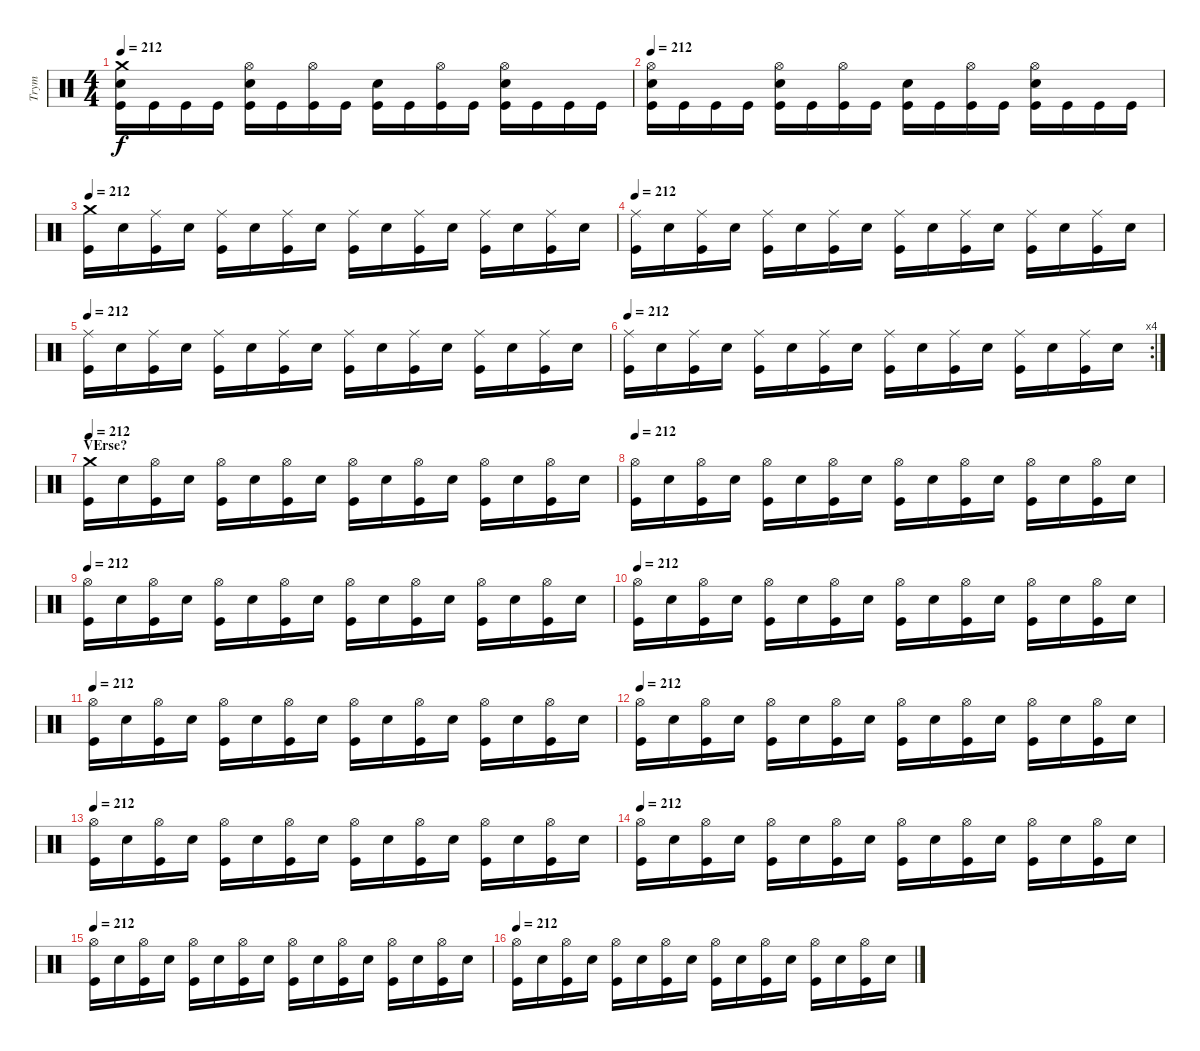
\track ("Trym" "Trym") {instrument percussion}
\staff {score}
\articulation defaults
\ts (4 4)
\tempo 212
\clef neutral
\ks c
("Crash medium (hit)" "Electric Snare (hit)" "Kick (hit)").16{dy f} "Kick (hit)".16 "Kick (hit)".16 "Kick (hit)".16 ("Hi-Hat (open)" "Electric Snare (hit)" "Kick (hit)").16 "Kick (hit)".16 ("Hi-Hat (open)" "Kick (hit)").16 "Kick (hit)".16 ("Electric Snare (hit)" "Kick (hit)").16 "Kick (hit)".16 ("Hi-Hat (open)" "Kick (hit)").16 "Kick (hit)".16 ("Hi-Hat (open)" "Electric Snare (hit)" "Kick (hit)").16 "Kick (hit)".16 "Kick (hit)".16 "Kick (hit)".16 |
\tempo 212
("Hi-Hat (open)" "Electric Snare (hit)" "Kick (hit)").16 "Kick (hit)".16 "Kick (hit)".16 "Kick (hit)".16 ("Hi-Hat (open)" "Electric Snare (hit)" "Kick (hit)").16 "Kick (hit)".16 ("Hi-Hat (open)" "Kick (hit)").16 "Kick (hit)".16 ("Electric Snare (hit)" "Kick (hit)").16 "Kick (hit)".16 ("Hi-Hat (open)" "Kick (hit)").16 "Kick (hit)".16 ("Hi-Hat (open)" "Electric Snare (hit)" "Kick (hit)").16 "Kick (hit)".16 "Kick (hit)".16 "Kick (hit)".16 |
\tempo 212
("Crash medium (hit)" "Kick (hit)").16 "Electric Snare (hit)".16 ("Ride (middle)" "Kick (hit)").16 "Electric Snare (hit)".16 ("Ride (middle)" "Kick (hit)").16 "Electric Snare (hit)".16 ("Ride (middle)" "Kick (hit)").16 "Electric Snare (hit)".16 ("Ride (middle)" "Kick (hit)").16 "Electric Snare (hit)".16 ("Ride (middle)" "Kick (hit)").16 "Electric Snare (hit)".16 ("Ride (middle)" "Kick (hit)").16 "Electric Snare (hit)".16 ("Ride (middle)" "Kick (hit)").16 "Electric Snare (hit)".16 |
\tempo 212
("Ride (middle)" "Kick (hit)").16 "Electric Snare (hit)".16 ("Ride (middle)" "Kick (hit)").16 "Electric Snare (hit)".16 ("Ride (middle)" "Kick (hit)").16 "Electric Snare (hit)".16 ("Ride (middle)" "Kick (hit)").16 "Electric Snare (hit)".16 ("Ride (middle)" "Kick (hit)").16 "Electric Snare (hit)".16 ("Ride (middle)" "Kick (hit)").16 "Electric Snare (hit)".16 ("Ride (middle)" "Kick (hit)").16 "Electric Snare (hit)".16 ("Ride (middle)" "Kick (hit)").16 "Electric Snare (hit)".16 |
\tempo 212
("Ride (middle)" "Kick (hit)").16 "Electric Snare (hit)".16 ("Ride (middle)" "Kick (hit)").16 "Electric Snare (hit)".16 ("Ride (middle)" "Kick (hit)").16 "Electric Snare (hit)".16 ("Ride (middle)" "Kick (hit)").16 "Electric Snare (hit)".16 ("Ride (middle)" "Kick (hit)").16 "Electric Snare (hit)".16 ("Ride (middle)" "Kick (hit)").16 "Electric Snare (hit)".16 ("Ride (middle)" "Kick (hit)").16 "Electric Snare (hit)".16 ("Ride (middle)" "Kick (hit)").16 "Electric Snare (hit)".16 |
\rc 4
\tempo 212
("Ride (middle)" "Kick (hit)").16 "Electric Snare (hit)".16 ("Ride (middle)" "Kick (hit)").16 "Electric Snare (hit)".16 ("Ride (middle)" "Kick (hit)").16 "Electric Snare (hit)".16 ("Ride (middle)" "Kick (hit)").16 "Electric Snare (hit)".16 ("Ride (middle)" "Kick (hit)").16 "Electric Snare (hit)".16 ("Ride (middle)" "Kick (hit)").16 "Electric Snare (hit)".16 ("Ride (middle)" "Kick (hit)").16 "Electric Snare (hit)".16 ("Ride (middle)" "Kick (hit)").16 "Electric Snare (hit)".16 |
\section ("" "VErse?")
\tempo 212
("Crash medium (hit)" "Kick (hit)").16 "Electric Snare (hit)".16 ("Hi-Hat (open)" "Kick (hit)").16 "Electric Snare (hit)".16 ("Hi-Hat (open)" "Kick (hit)").16 "Electric Snare (hit)".16 ("Hi-Hat (open)" "Kick (hit)").16 "Electric Snare (hit)".16 ("Hi-Hat (open)" "Kick (hit)").16 "Electric Snare (hit)".16 ("Hi-Hat (open)" "Kick (hit)").16 "Electric Snare (hit)".16 ("Hi-Hat (open)" "Kick (hit)").16 "Electric Snare (hit)".16 ("Hi-Hat (open)" "Kick (hit)").16 "Electric Snare (hit)".16 |
\tempo 212
("Hi-Hat (open)" "Kick (hit)").16 "Electric Snare (hit)".16 ("Hi-Hat (open)" "Kick (hit)").16 "Electric Snare (hit)".16 ("Hi-Hat (open)" "Kick (hit)").16 "Electric Snare (hit)".16 ("Hi-Hat (open)" "Kick (hit)").16 "Electric Snare (hit)".16 ("Hi-Hat (open)" "Kick (hit)").16 "Electric Snare (hit)".16 ("Hi-Hat (open)" "Kick (hit)").16 "Electric Snare (hit)".16 ("Hi-Hat (open)" "Kick (hit)").16 "Electric Snare (hit)".16 ("Hi-Hat (open)" "Kick (hit)").16 "Electric Snare (hit)".16 |
\tempo 212
("Hi-Hat (open)" "Kick (hit)").16 "Electric Snare (hit)".16 ("Hi-Hat (open)" "Kick (hit)").16 "Electric Snare (hit)".16 ("Hi-Hat (open)" "Kick (hit)").16 "Electric Snare (hit)".16 ("Hi-Hat (open)" "Kick (hit)").16 "Electric Snare (hit)".16 ("Hi-Hat (open)" "Kick (hit)").16 "Electric Snare (hit)".16 ("Hi-Hat (open)" "Kick (hit)").16 "Electric Snare (hit)".16 ("Hi-Hat (open)" "Kick (hit)").16 "Electric Snare (hit)".16 ("Hi-Hat (open)" "Kick (hit)").16 "Electric Snare (hit)".16 |
\tempo 212
("Hi-Hat (open)" "Kick (hit)").16 "Electric Snare (hit)".16 ("Hi-Hat (open)" "Kick (hit)").16 "Electric Snare (hit)".16 ("Hi-Hat (open)" "Kick (hit)").16 "Electric Snare (hit)".16 ("Hi-Hat (open)" "Kick (hit)").16 "Electric Snare (hit)".16 ("Hi-Hat (open)" "Kick (hit)").16 "Electric Snare (hit)".16 ("Hi-Hat (open)" "Kick (hit)").16 "Electric Snare (hit)".16 ("Hi-Hat (open)" "Kick (hit)").16 "Electric Snare (hit)".16 ("Hi-Hat (open)" "Kick (hit)").16 "Electric Snare (hit)".16 |
\tempo 212
("Hi-Hat (open)" "Kick (hit)").16 "Electric Snare (hit)".16 ("Hi-Hat (open)" "Kick (hit)").16 "Electric Snare (hit)".16 ("Hi-Hat (open)" "Kick (hit)").16 "Electric Snare (hit)".16 ("Hi-Hat (open)" "Kick (hit)").16 "Electric Snare (hit)".16 ("Hi-Hat (open)" "Kick (hit)").16 "Electric Snare (hit)".16 ("Hi-Hat (open)" "Kick (hit)").16 "Electric Snare (hit)".16 ("Hi-Hat (open)" "Kick (hit)").16 "Electric Snare (hit)".16 ("Hi-Hat (open)" "Kick (hit)").16 "Electric Snare (hit)".16 |
\tempo 212
("Hi-Hat (open)" "Kick (hit)").16 "Electric Snare (hit)".16 ("Hi-Hat (open)" "Kick (hit)").16 "Electric Snare (hit)".16 ("Hi-Hat (open)" "Kick (hit)").16 "Electric Snare (hit)".16 ("Hi-Hat (open)" "Kick (hit)").16 "Electric Snare (hit)".16 ("Hi-Hat (open)" "Kick (hit)").16 "Electric Snare (hit)".16 ("Hi-Hat (open)" "Kick (hit)").16 "Electric Snare (hit)".16 ("Hi-Hat (open)" "Kick (hit)").16 "Electric Snare (hit)".16 ("Hi-Hat (open)" "Kick (hit)").16 "Electric Snare (hit)".16 |
\tempo 212
("Hi-Hat (open)" "Kick (hit)").16 "Electric Snare (hit)".16 ("Hi-Hat (open)" "Kick (hit)").16 "Electric Snare (hit)".16 ("Hi-Hat (open)" "Kick (hit)").16 "Electric Snare (hit)".16 ("Hi-Hat (open)" "Kick (hit)").16 "Electric Snare (hit)".16 ("Hi-Hat (open)" "Kick (hit)").16 "Electric Snare (hit)".16 ("Hi-Hat (open)" "Kick (hit)").16 "Electric Snare (hit)".16 ("Hi-Hat (open)" "Kick (hit)").16 "Electric Snare (hit)".16 ("Hi-Hat (open)" "Kick (hit)").16 "Electric Snare (hit)".16 |
\tempo 212
("Hi-Hat (open)" "Kick (hit)").16 "Electric Snare (hit)".16 ("Hi-Hat (open)" "Kick (hit)").16 "Electric Snare (hit)".16 ("Hi-Hat (open)" "Kick (hit)").16 "Electric Snare (hit)".16 ("Hi-Hat (open)" "Kick (hit)").16 "Electric Snare (hit)".16 ("Hi-Hat (open)" "Kick (hit)").16 "Electric Snare (hit)".16 ("Hi-Hat (open)" "Kick (hit)").16 "Electric Snare (hit)".16 ("Hi-Hat (open)" "Kick (hit)").16 "Electric Snare (hit)".16 ("Hi-Hat (open)" "Kick (hit)").16 "Electric Snare (hit)".16 |
\tempo 212
("Hi-Hat (open)" "Kick (hit)").16 "Electric Snare (hit)".16 ("Hi-Hat (open)" "Kick (hit)").16 "Electric Snare (hit)".16 ("Hi-Hat (open)" "Kick (hit)").16 "Electric Snare (hit)".16 ("Hi-Hat (open)" "Kick (hit)").16 "Electric Snare (hit)".16 ("Hi-Hat (open)" "Kick (hit)").16 "Electric Snare (hit)".16 ("Hi-Hat (open)" "Kick (hit)").16 "Electric Snare (hit)".16 ("Hi-Hat (open)" "Kick (hit)").16 "Electric Snare (hit)".16 ("Hi-Hat (open)" "Kick (hit)").16 "Electric Snare (hit)".16 |
\tempo 212
("Hi-Hat (open)" "Kick (hit)").16 "Electric Snare (hit)".16 ("Hi-Hat (open)" "Kick (hit)").16 "Electric Snare (hit)".16 ("Hi-Hat (open)" "Kick (hit)").16 "Electric Snare (hit)".16 ("Hi-Hat (open)" "Kick (hit)").16 "Electric Snare (hit)".16 ("Hi-Hat (open)" "Kick (hit)").16 "Electric Snare (hit)".16 ("Hi-Hat (open)" "Kick (hit)").16 "Electric Snare (hit)".16 ("Hi-Hat (open)" "Kick (hit)").16 "Electric Snare (hit)".16 ("Hi-Hat (open)" "Kick (hit)").16 "Electric Snare (hit)".16
